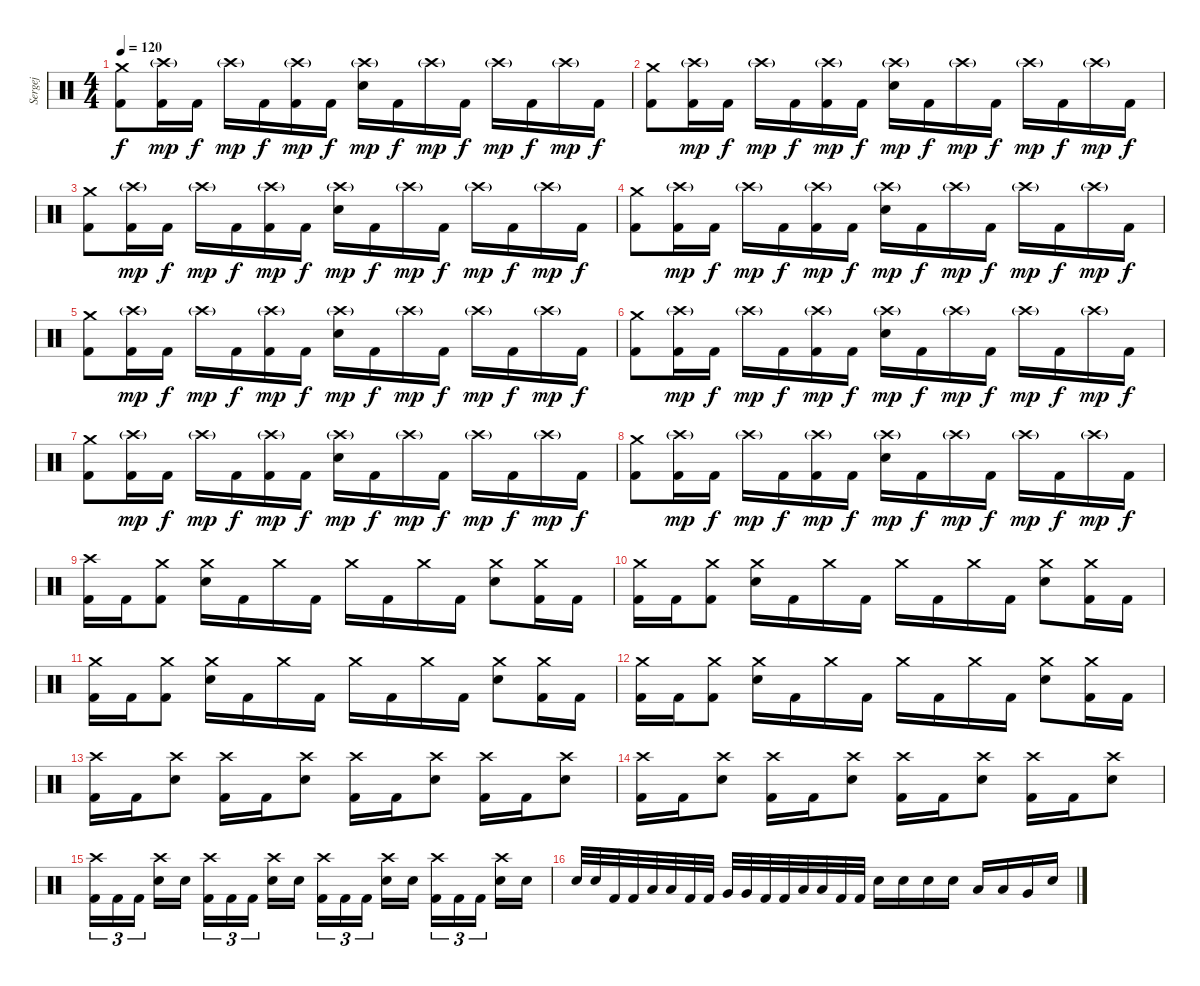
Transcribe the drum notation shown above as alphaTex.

\track ("Sergej" "Sergej") {instrument percussion}
\staff {score}
\articulation defaults
\ts (4 4)
\tempo 120
\clef neutral
\ks c
("Crash medium (hit)" "Kick (hit) 2").8{dy f} ("Crash high (hit)"{g} "Kick (hit) 2").16{dy mp} "Kick (hit) 2".16{dy f} "Crash high (hit)"{g}.16{dy mp} "Kick (hit) 2".16{dy f} ("Crash high (hit)"{g} "Kick (hit) 2").16{dy mp} "Kick (hit) 2".16{dy f} ("Crash high (hit)"{g} "Snare (hit) 2").16{dy mp} "Kick (hit) 2".16{dy f} "Crash high (hit)"{g}.16{dy mp} "Kick (hit) 2".16{dy f} "Crash high (hit)"{g}.16{dy mp} "Kick (hit) 2".16{dy f} "Crash high (hit)"{g}.16{dy mp} "Kick (hit) 2".16{dy f} |
("Crash medium (hit)" "Kick (hit) 2").8 ("Crash high (hit)"{g} "Kick (hit) 2").16{dy mp} "Kick (hit) 2".16{dy f} "Crash high (hit)"{g}.16{dy mp} "Kick (hit) 2".16{dy f} ("Crash high (hit)"{g} "Kick (hit) 2").16{dy mp} "Kick (hit) 2".16{dy f} ("Crash high (hit)"{g} "Snare (hit) 2").16{dy mp} "Kick (hit) 2".16{dy f} "Crash high (hit)"{g}.16{dy mp} "Kick (hit) 2".16{dy f} "Crash high (hit)"{g}.16{dy mp} "Kick (hit) 2".16{dy f} "Crash high (hit)"{g}.16{dy mp} "Kick (hit) 2".16{dy f} |
("Crash medium (hit)" "Kick (hit) 2").8 ("Crash high (hit)"{g} "Kick (hit) 2").16{dy mp} "Kick (hit) 2".16{dy f} "Crash high (hit)"{g}.16{dy mp} "Kick (hit) 2".16{dy f} ("Crash high (hit)"{g} "Kick (hit) 2").16{dy mp} "Kick (hit) 2".16{dy f} ("Crash high (hit)"{g} "Snare (hit) 2").16{dy mp} "Kick (hit) 2".16{dy f} "Crash high (hit)"{g}.16{dy mp} "Kick (hit) 2".16{dy f} "Crash high (hit)"{g}.16{dy mp} "Kick (hit) 2".16{dy f} "Crash high (hit)"{g}.16{dy mp} "Kick (hit) 2".16{dy f} |
("Crash medium (hit)" "Kick (hit) 2").8 ("Crash high (hit)"{g} "Kick (hit) 2").16{dy mp} "Kick (hit) 2".16{dy f} "Crash high (hit)"{g}.16{dy mp} "Kick (hit) 2".16{dy f} ("Crash high (hit)"{g} "Kick (hit) 2").16{dy mp} "Kick (hit) 2".16{dy f} ("Crash high (hit)"{g} "Snare (hit) 2").16{dy mp} "Kick (hit) 2".16{dy f} "Crash high (hit)"{g}.16{dy mp} "Kick (hit) 2".16{dy f} "Crash high (hit)"{g}.16{dy mp} "Kick (hit) 2".16{dy f} "Crash high (hit)"{g}.16{dy mp} "Kick (hit) 2".16{dy f} |
("Crash medium (hit)" "Kick (hit) 2").8 ("Crash high (hit)"{g} "Kick (hit) 2").16{dy mp} "Kick (hit) 2".16{dy f} "Crash high (hit)"{g}.16{dy mp} "Kick (hit) 2".16{dy f} ("Crash high (hit)"{g} "Kick (hit) 2").16{dy mp} "Kick (hit) 2".16{dy f} ("Crash high (hit)"{g} "Snare (hit) 2").16{dy mp} "Kick (hit) 2".16{dy f} "Crash high (hit)"{g}.16{dy mp} "Kick (hit) 2".16{dy f} "Crash high (hit)"{g}.16{dy mp} "Kick (hit) 2".16{dy f} "Crash high (hit)"{g}.16{dy mp} "Kick (hit) 2".16{dy f} |
("Crash medium (hit)" "Kick (hit) 2").8 ("Crash high (hit)"{g} "Kick (hit) 2").16{dy mp} "Kick (hit) 2".16{dy f} "Crash high (hit)"{g}.16{dy mp} "Kick (hit) 2".16{dy f} ("Crash high (hit)"{g} "Kick (hit) 2").16{dy mp} "Kick (hit) 2".16{dy f} ("Crash high (hit)"{g} "Snare (hit) 2").16{dy mp} "Kick (hit) 2".16{dy f} "Crash high (hit)"{g}.16{dy mp} "Kick (hit) 2".16{dy f} "Crash high (hit)"{g}.16{dy mp} "Kick (hit) 2".16{dy f} "Crash high (hit)"{g}.16{dy mp} "Kick (hit) 2".16{dy f} |
("Crash medium (hit)" "Kick (hit) 2").8 ("Crash high (hit)"{g} "Kick (hit) 2").16{dy mp} "Kick (hit) 2".16{dy f} "Crash high (hit)"{g}.16{dy mp} "Kick (hit) 2".16{dy f} ("Crash high (hit)"{g} "Kick (hit) 2").16{dy mp} "Kick (hit) 2".16{dy f} ("Crash high (hit)"{g} "Snare (hit) 2").16{dy mp} "Kick (hit) 2".16{dy f} "Crash high (hit)"{g}.16{dy mp} "Kick (hit) 2".16{dy f} "Crash high (hit)"{g}.16{dy mp} "Kick (hit) 2".16{dy f} "Crash high (hit)"{g}.16{dy mp} "Kick (hit) 2".16{dy f} |
("Crash medium (hit)" "Kick (hit) 2").8 ("Crash high (hit)"{g} "Kick (hit) 2").16{dy mp} "Kick (hit) 2".16{dy f} "Crash high (hit)"{g}.16{dy mp} "Kick (hit) 2".16{dy f} ("Crash high (hit)"{g} "Kick (hit) 2").16{dy mp} "Kick (hit) 2".16{dy f} ("Crash high (hit)"{g} "Snare (hit) 2").16{dy mp} "Kick (hit) 2".16{dy f} "Crash high (hit)"{g}.16{dy mp} "Kick (hit) 2".16{dy f} "Crash high (hit)"{g}.16{dy mp} "Kick (hit) 2".16{dy f} "Crash high (hit)"{g}.16{dy mp} "Kick (hit) 2".16{dy f} |
("Crash high (hit)" "Kick (hit) 2").16 "Kick (hit) 2".16 ("Crash medium (hit)" "Kick (hit) 2").8 ("Crash medium (hit)" "Snare (hit) 2").16 "Kick (hit) 2".16 "Crash medium (hit)".16 "Kick (hit) 2".16 "Crash medium (hit)".16 "Kick (hit) 2".16 "Crash medium (hit)".16 "Kick (hit) 2".16 ("Crash medium (hit)" "Snare (hit) 2").8 ("Crash medium (hit)" "Kick (hit) 2").16 "Kick (hit) 2".16 |
("Crash medium (hit)" "Kick (hit) 2").16 "Kick (hit) 2".16 ("Crash medium (hit)" "Kick (hit) 2").8 ("Crash medium (hit)" "Snare (hit) 2").16 "Kick (hit) 2".16 "Crash medium (hit)".16 "Kick (hit) 2".16 "Crash medium (hit)".16 "Kick (hit) 2".16 "Crash medium (hit)".16 "Kick (hit) 2".16 ("Crash medium (hit)" "Snare (hit) 2").8 ("Crash medium (hit)" "Kick (hit) 2").16 "Kick (hit) 2".16 |
("Crash medium (hit)" "Kick (hit) 2").16 "Kick (hit) 2".16 ("Crash medium (hit)" "Kick (hit) 2").8 ("Crash medium (hit)" "Snare (hit) 2").16 "Kick (hit) 2".16 "Crash medium (hit)".16 "Kick (hit) 2".16 "Crash medium (hit)".16 "Kick (hit) 2".16 "Crash medium (hit)".16 "Kick (hit) 2".16 ("Crash medium (hit)" "Snare (hit) 2").8 ("Crash medium (hit)" "Kick (hit) 2").16 "Kick (hit) 2".16 |
("Crash medium (hit)" "Kick (hit) 2").16 "Kick (hit) 2".16 ("Crash medium (hit)" "Kick (hit) 2").8 ("Crash medium (hit)" "Snare (hit) 2").16 "Kick (hit) 2".16 "Crash medium (hit)".16 "Kick (hit) 2".16 "Crash medium (hit)".16 "Kick (hit) 2".16 "Crash medium (hit)".16 "Kick (hit) 2".16 ("Crash medium (hit)" "Snare (hit) 2").8 ("Crash medium (hit)" "Kick (hit) 2").16 "Kick (hit) 2".16 |
("Crash high (hit)" "Kick (hit) 2").16 "Kick (hit) 2".16 ("Crash high (hit)" "Snare (hit) 2").8 ("Crash high (hit)" "Kick (hit) 2").16 "Kick (hit) 2".16 ("Crash high (hit)" "Snare (hit) 2").8 ("Crash high (hit)" "Kick (hit) 2").16 "Kick (hit) 2".16 ("Crash high (hit)" "Snare (hit) 2").8 ("Crash high (hit)" "Kick (hit) 2").16 "Kick (hit) 2".16 ("Crash high (hit)" "Snare (hit) 2").8 |
("Crash high (hit)" "Kick (hit) 2").16 "Kick (hit) 2".16 ("Crash high (hit)" "Snare (hit) 2").8 ("Crash high (hit)" "Kick (hit) 2").16 "Kick (hit) 2".16 ("Crash high (hit)" "Snare (hit) 2").8 ("Crash high (hit)" "Kick (hit) 2").16 "Kick (hit) 2".16 ("Crash high (hit)" "Snare (hit) 2").8 ("Crash high (hit)" "Kick (hit) 2").16 "Kick (hit) 2".16 ("Crash high (hit)" "Snare (hit) 2").8 |
("Crash high (hit)" "Kick (hit) 2").16{tu (3 2)} "Kick (hit) 2".16{tu (3 2)} "Kick (hit) 2".16{tu (3 2)} ("Crash high (hit)" "Snare (hit) 2").16 "Snare (hit) 2".16 ("Crash high (hit)" "Kick (hit) 2").16{tu (3 2)} "Kick (hit) 2".16{tu (3 2)} "Kick (hit) 2".16{tu (3 2)} ("Crash high (hit)" "Snare (hit) 2").16 "Snare (hit) 2".16 ("Crash high (hit)" "Kick (hit) 2").16{tu (3 2)} "Kick (hit) 2".16{tu (3 2)} "Kick (hit) 2".16{tu (3 2)} ("Crash high (hit)" "Snare (hit) 2").16 "Snare (hit) 2".16 ("Crash high (hit)" "Kick (hit) 2").16{tu (3 2)} "Kick (hit) 2".16{tu (3 2)} "Kick (hit) 2".16{tu (3 2)} ("Crash high (hit)" "Snare (hit) 2").16 "Snare (hit) 2".16 |
"Snare (hit) 2".32 "Snare (hit) 2".32 "Kick (hit) 2".32 "Kick (hit) 2".32 "Low Tom (hit)".32 "Low Tom (hit)".32 "Kick (hit) 2".32 "Kick (hit) 2".32 "Very Low Tom (hit)".32 "Very Low Tom (hit)".32 "Kick (hit) 2".32 "Kick (hit) 2".32 "Low Floor Tom (hit)".32 "Low Floor Tom (hit)".32 "Kick (hit) 2".32 "Kick (hit) 2".32 "Snare (hit) 2".16 "Snare (hit) 2".16 "Snare (hit) 2".16 "Snare (hit) 2".16 "Low Tom (hit)".16 "Low Tom (hit)".16 "Very Low Tom (hit)".16 "Snare (hit) 2".16
